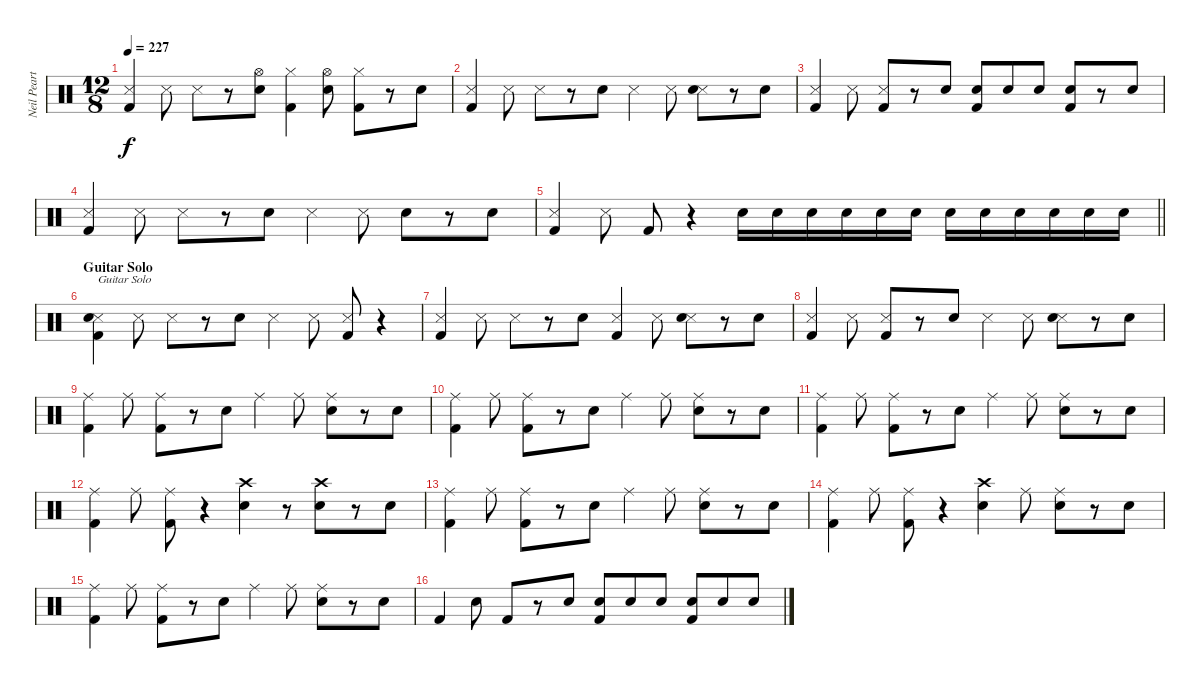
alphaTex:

\track ("Neil Peart" "Neil Peart") {instrument percussion}
\staff {score}
\articulation defaults
\ts (12 8)
\tempo 227
\clef neutral
\ks c
("Snare (side stick) 3" "Kick (hit) 2").4{dy f} "Snare (side stick) 3".8 "Snare (side stick) 3".8 r.8 ("Electric Snare (hit)" "Hi-Hat (open)").8 ("Hi-Hat (closed)" "Kick (hit) 2").4 ("Electric Snare (hit)" "Hi-Hat (open)").8 ("Hi-Hat (closed)" "Kick (hit) 2").8 r.8 "Electric Snare (hit)".8 |
("Snare (side stick) 3" "Kick (hit) 2").4 "Snare (side stick) 3".8 "Snare (side stick) 3".8 r.8 "Electric Snare (hit)".8 "Snare (side stick) 3".4 "Snare (side stick) 3".8 ("Snare (side stick) 3" "Electric Snare (hit)").8 r.8 "Electric Snare (hit)".8 |
("Snare (side stick) 3" "Kick (hit) 2").4 "Snare (side stick) 3".8 ("Snare (side stick) 3" "Kick (hit) 2").8 r.8 "Electric Snare (hit)".8 ("Electric Snare (hit)" "Kick (hit) 2").8 "Electric Snare (hit)".8 "Electric Snare (hit)".8 ("Electric Snare (hit)" "Kick (hit) 2").8 r.8 "Electric Snare (hit)".8 |
("Snare (side stick) 3" "Kick (hit) 2").4 "Snare (side stick) 3".8 "Snare (side stick) 3".8 r.8 "Electric Snare (hit)".8 "Snare (side stick) 3".4 "Snare (side stick) 3".8 "Electric Snare (hit)".8 r.8 "Electric Snare (hit)".8 |
\barLineRight lightlight
("Snare (side stick) 3" "Kick (hit) 2").4 "Snare (side stick) 3".8 "Kick (hit) 2".8 r.4 "Electric Snare (hit)".16 "Electric Snare (hit)".16 "Electric Snare (hit)".16 "Electric Snare (hit)".16 "Electric Snare (hit)".16 "Electric Snare (hit)".16 "Electric Snare (hit)".16 "Electric Snare (hit)".16 "Electric Snare (hit)".16 "Electric Snare (hit)".16 "Electric Snare (hit)".16 "Electric Snare (hit)".16 |
\section ("" "Guitar Solo")
("Snare (side stick) 3" "Electric Snare (hit)" "Kick (hit) 2").4{txt "Guitar Solo"} "Snare (side stick) 3".8 "Snare (side stick) 3".8 r.8 "Electric Snare (hit)".8 "Snare (side stick) 3".4 "Snare (side stick) 3".8 ("Snare (side stick) 3" "Kick (hit) 2").8 r.4 |
("Snare (side stick) 3" "Kick (hit) 2").4 "Snare (side stick) 3".8 "Snare (side stick) 3".8 r.8 "Electric Snare (hit)".8 ("Snare (side stick) 3" "Kick (hit) 2").4 "Snare (side stick) 3".8 ("Snare (side stick) 3" "Electric Snare (hit)").8 r.8 "Electric Snare (hit)".8 |
("Snare (side stick) 3" "Kick (hit) 2").4 "Snare (side stick) 3".8 ("Snare (side stick) 3" "Kick (hit) 2").8 r.8 "Electric Snare (hit)".8 "Snare (side stick) 3".4 "Snare (side stick) 3".8 ("Snare (side stick) 3" "Electric Snare (hit)").8 r.8 "Electric Snare (hit)".8 |
("Ride (middle)" "Kick (hit) 2").4 "Ride (middle)".8 ("Ride (middle)" "Kick (hit) 2").8 r.8 "Electric Snare (hit)".8 "Ride (middle)".4 "Ride (middle)".8 ("Electric Snare (hit)" "Ride (middle)").8 r.8 "Electric Snare (hit)".8 |
("Ride (middle)" "Kick (hit) 2").4 "Ride (middle)".8 ("Ride (middle)" "Kick (hit) 2").8 r.8 "Electric Snare (hit)".8 "Ride (middle)".4 "Ride (middle)".8 ("Electric Snare (hit)" "Ride (middle)").8 r.8 "Electric Snare (hit)".8 |
("Ride (middle)" "Kick (hit) 2").4 "Ride (middle)".8 ("Ride (middle)" "Kick (hit) 2").8 r.8 "Electric Snare (hit)".8 "Ride (middle)".4 "Ride (middle)".8 ("Electric Snare (hit)" "Ride (middle)").8 r.8 "Electric Snare (hit)".8 |
("Ride (middle)" "Kick (hit) 2").4 "Ride (middle)".8 ("Ride (middle)" "Kick (hit) 2").8 r.4 ("Electric Snare (hit)" "Crash high (hit)").4 r.8 ("Electric Snare (hit)" "Crash high (hit)").8 r.8 "Electric Snare (hit)".8 |
("Ride (middle)" "Kick (hit) 2").4 "Ride (middle)".8 ("Ride (middle)" "Kick (hit) 2").8 r.8 "Electric Snare (hit)".8 "Ride (middle)".4 "Ride (middle)".8 ("Electric Snare (hit)" "Ride (middle)").8 r.8 "Electric Snare (hit)".8 |
("Ride (middle)" "Kick (hit) 2").4 "Ride (middle)".8 ("Ride (middle)" "Kick (hit) 2").8 r.4 ("Electric Snare (hit)" "Crash high (hit)").4 "Ride (middle)".8 ("Electric Snare (hit)" "Ride (middle)").8 r.8 "Electric Snare (hit)".8 |
("Ride (middle)" "Kick (hit) 2").4 "Ride (middle)".8 ("Ride (middle)" "Kick (hit) 2").8 r.8 "Electric Snare (hit)".8 "Ride (middle)".4 "Ride (middle)".8 ("Electric Snare (hit)" "Ride (middle)").8 r.8 "Electric Snare (hit)".8 |
"Kick (hit) 2".4 "Electric Snare (hit)".8 "Kick (hit) 2".8 r.8 "Electric Snare (hit)".8 ("Electric Snare (hit)" "Kick (hit) 2").8 "Electric Snare (hit)".8 "Electric Snare (hit)".8 ("Electric Snare (hit)" "Kick (hit) 2").8 "Electric Snare (hit)".8 "Electric Snare (hit)".8
